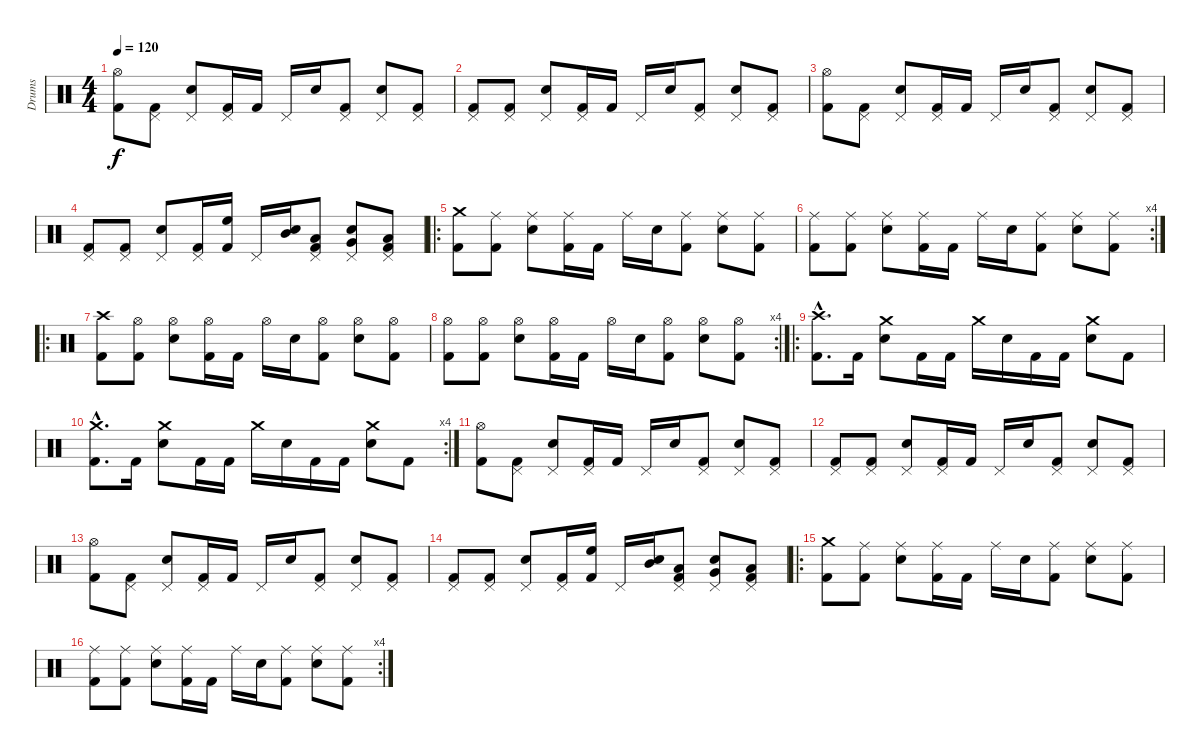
\track ("Drums" "Drums") {instrument percussion}
\staff {score}
\articulation defaults
\ts (4 4)
\tempo 120
\clef neutral
\ks c
("Hi-Hat (open)" "Kick (hit) 2").8{dy f} ("Pedal Hi-Hat (hit)" "Kick (hit) 2").8 ("Pedal Hi-Hat (hit)" "Electric Snare (hit)").8 ("Pedal Hi-Hat (hit)" "Kick (hit) 2").16 "Kick (hit) 2".16 "Pedal Hi-Hat (hit)".16 "Electric Snare (hit)".16 ("Pedal Hi-Hat (hit)" "Kick (hit) 2").8 ("Pedal Hi-Hat (hit)" "Electric Snare (hit)").8 ("Pedal Hi-Hat (hit)" "Kick (hit) 2").8 |
("Pedal Hi-Hat (hit)" "Kick (hit) 2").8 ("Pedal Hi-Hat (hit)" "Kick (hit) 2").8 ("Pedal Hi-Hat (hit)" "Electric Snare (hit)").8 ("Pedal Hi-Hat (hit)" "Kick (hit) 2").16 "Kick (hit) 2".16 "Pedal Hi-Hat (hit)".16 "Electric Snare (hit)".16 ("Pedal Hi-Hat (hit)" "Kick (hit) 2").8 ("Pedal Hi-Hat (hit)" "Electric Snare (hit)").8 ("Pedal Hi-Hat (hit)" "Kick (hit) 2").8 |
("Hi-Hat (open)" "Kick (hit) 2").8 ("Pedal Hi-Hat (hit)" "Kick (hit) 2").8 ("Pedal Hi-Hat (hit)" "Electric Snare (hit)").8 ("Pedal Hi-Hat (hit)" "Kick (hit) 2").16 "Kick (hit) 2".16 "Pedal Hi-Hat (hit)".16 "Electric Snare (hit)".16 ("Pedal Hi-Hat (hit)" "Kick (hit) 2").8 ("Pedal Hi-Hat (hit)" "Electric Snare (hit)").8 ("Pedal Hi-Hat (hit)" "Kick (hit) 2").8 |
("Pedal Hi-Hat (hit)" "Kick (hit) 2").8 ("Pedal Hi-Hat (hit)" "Kick (hit) 2").8 ("Pedal Hi-Hat (hit)" "Electric Snare (hit)").8 ("Pedal Hi-Hat (hit)" "Kick (hit) 2").16 ("Kick (hit) 2" "High Floor Tom (hit)").16 "Pedal Hi-Hat (hit)".16 ("Electric Snare (hit)" "Mid Tom (hit)").16 ("Pedal Hi-Hat (hit)" "Kick (hit) 2" "Low Tom (hit)").8 ("Pedal Hi-Hat (hit)" "Electric Snare (hit)" "Very Low Tom (hit)").8 ("Pedal Hi-Hat (hit)" "Kick (hit) 2" "Low Floor Tom (hit)").8 |
\ro
("Crash medium (hit)" "Kick (hit) 2").8 ("Ride (middle)" "Kick (hit) 2").8 ("Ride (middle)" "Electric Snare (hit)").8 ("Ride (middle)" "Kick (hit) 2").16 "Kick (hit) 2".16 "Ride (middle)".16 "Electric Snare (hit)".16 ("Ride (middle)" "Kick (hit) 2").8 ("Ride (middle)" "Electric Snare (hit)").8 ("Ride (middle)" "Kick (hit) 2").8 |
\rc 4
("Ride (middle)" "Kick (hit) 2").8 ("Ride (middle)" "Kick (hit) 2").8 ("Ride (middle)" "Electric Snare (hit)").8 ("Ride (middle)" "Kick (hit) 2").16 "Kick (hit) 2".16 "Ride (middle)".16 "Electric Snare (hit)".16 ("Ride (middle)" "Kick (hit) 2").8 ("Ride (middle)" "Electric Snare (hit)").8 ("Ride (middle)" "Kick (hit) 2").8 |
\ro
("Crash high (hit)" "Kick (hit) 2").8 ("Hi-Hat (open)" "Kick (hit) 2").8 ("Hi-Hat (open)" "Electric Snare (hit)").8 ("Hi-Hat (open)" "Kick (hit) 2").16 "Kick (hit) 2".16 "Hi-Hat (open)".16 "Electric Snare (hit)".16 ("Hi-Hat (open)" "Kick (hit) 2").8 ("Hi-Hat (open)" "Electric Snare (hit)").8 ("Hi-Hat (open)" "Kick (hit) 2").8 |
\rc 4
("Hi-Hat (open)" "Kick (hit) 2").8 ("Hi-Hat (open)" "Kick (hit) 2").8 ("Hi-Hat (open)" "Electric Snare (hit)").8 ("Hi-Hat (open)" "Kick (hit) 2").16 "Kick (hit) 2".16 "Hi-Hat (open)".16 "Electric Snare (hit)".16 ("Hi-Hat (open)" "Kick (hit) 2").8 ("Hi-Hat (open)" "Electric Snare (hit)").8 ("Hi-Hat (open)" "Kick (hit) 2").8 |
\ro
("Crash high (hit)"{hac} "Kick (hit) 2"{hac}).8{d} "Kick (hit) 2".16 ("Crash medium (hit)" "Electric Snare (hit)").8 "Kick (hit) 2".16 "Kick (hit) 2".16 "Crash medium (hit)".16 "Electric Snare (hit)".16 "Kick (hit) 2".16 "Kick (hit) 2".16 ("Crash medium (hit)" "Electric Snare (hit)").8 "Kick (hit) 2".8 |
\rc 4
("Crash medium (hit)"{hac} "Kick (hit) 2"{hac}).8{d} "Kick (hit) 2".16 ("Crash medium (hit)" "Electric Snare (hit)").8 "Kick (hit) 2".16 "Kick (hit) 2".16 "Crash medium (hit)".16 "Electric Snare (hit)".16 "Kick (hit) 2".16 "Kick (hit) 2".16 ("Crash medium (hit)" "Electric Snare (hit)").8 "Kick (hit) 2".8 |
("Hi-Hat (open)" "Kick (hit) 2").8 ("Pedal Hi-Hat (hit)" "Kick (hit) 2").8 ("Pedal Hi-Hat (hit)" "Electric Snare (hit)").8 ("Pedal Hi-Hat (hit)" "Kick (hit) 2").16 "Kick (hit) 2".16 "Pedal Hi-Hat (hit)".16 "Electric Snare (hit)".16 ("Pedal Hi-Hat (hit)" "Kick (hit) 2").8 ("Pedal Hi-Hat (hit)" "Electric Snare (hit)").8 ("Pedal Hi-Hat (hit)" "Kick (hit) 2").8 |
("Pedal Hi-Hat (hit)" "Kick (hit) 2").8 ("Pedal Hi-Hat (hit)" "Kick (hit) 2").8 ("Pedal Hi-Hat (hit)" "Electric Snare (hit)").8 ("Pedal Hi-Hat (hit)" "Kick (hit) 2").16 "Kick (hit) 2".16 "Pedal Hi-Hat (hit)".16 "Electric Snare (hit)".16 ("Pedal Hi-Hat (hit)" "Kick (hit) 2").8 ("Pedal Hi-Hat (hit)" "Electric Snare (hit)").8 ("Pedal Hi-Hat (hit)" "Kick (hit) 2").8 |
("Hi-Hat (open)" "Kick (hit) 2").8 ("Pedal Hi-Hat (hit)" "Kick (hit) 2").8 ("Pedal Hi-Hat (hit)" "Electric Snare (hit)").8 ("Pedal Hi-Hat (hit)" "Kick (hit) 2").16 "Kick (hit) 2".16 "Pedal Hi-Hat (hit)".16 "Electric Snare (hit)".16 ("Pedal Hi-Hat (hit)" "Kick (hit) 2").8 ("Pedal Hi-Hat (hit)" "Electric Snare (hit)").8 ("Pedal Hi-Hat (hit)" "Kick (hit) 2").8 |
("Pedal Hi-Hat (hit)" "Kick (hit) 2").8 ("Pedal Hi-Hat (hit)" "Kick (hit) 2").8 ("Pedal Hi-Hat (hit)" "Electric Snare (hit)").8 ("Pedal Hi-Hat (hit)" "Kick (hit) 2").16 ("Kick (hit) 2" "High Floor Tom (hit)").16 "Pedal Hi-Hat (hit)".16 ("Electric Snare (hit)" "Mid Tom (hit)").16 ("Pedal Hi-Hat (hit)" "Kick (hit) 2" "Low Tom (hit)").8 ("Pedal Hi-Hat (hit)" "Electric Snare (hit)" "Very Low Tom (hit)").8 ("Pedal Hi-Hat (hit)" "Kick (hit) 2" "Low Floor Tom (hit)").8 |
\ro
("Crash medium (hit)" "Kick (hit) 2").8 ("Ride (middle)" "Kick (hit) 2").8 ("Ride (middle)" "Electric Snare (hit)").8 ("Ride (middle)" "Kick (hit) 2").16 "Kick (hit) 2".16 "Ride (middle)".16 "Electric Snare (hit)".16 ("Ride (middle)" "Kick (hit) 2").8 ("Ride (middle)" "Electric Snare (hit)").8 ("Ride (middle)" "Kick (hit) 2").8 |
\rc 4
("Ride (middle)" "Kick (hit) 2").8 ("Ride (middle)" "Kick (hit) 2").8 ("Ride (middle)" "Electric Snare (hit)").8 ("Ride (middle)" "Kick (hit) 2").16 "Kick (hit) 2".16 "Ride (middle)".16 "Electric Snare (hit)".16 ("Ride (middle)" "Kick (hit) 2").8 ("Ride (middle)" "Electric Snare (hit)").8 ("Ride (middle)" "Kick (hit) 2").8
